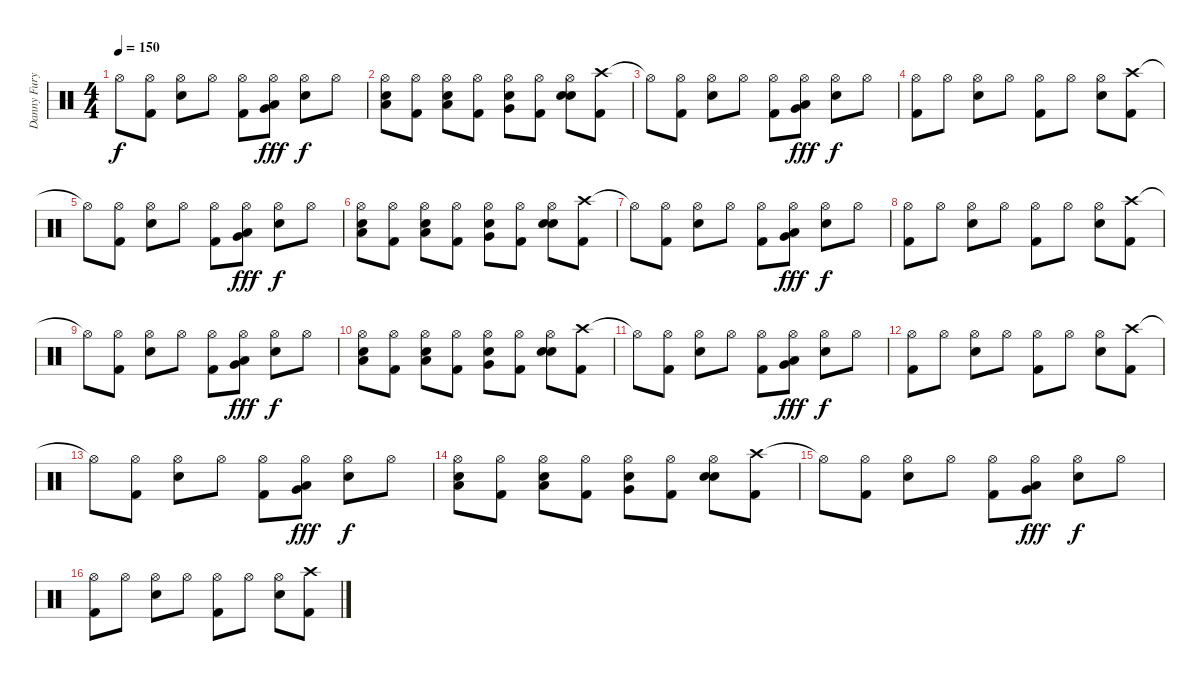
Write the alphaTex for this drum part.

\track ("Danny Fury" "Danny Fury") {instrument percussion}
\staff {score}
\articulation defaults
\ts (4 4)
\tempo 150
\clef neutral
\ks c "Hi-Hat (open)"{t}.8{dy f}
("Hi-Hat (open)" "Kick (hit) 2").8 ("Hi-Hat (open)" "Electric Snare (hit)").8 "Hi-Hat (open)".8 ("Hi-Hat (open)" "Kick (hit) 2").8 ("Hi-Hat (open)" "Low Floor Tom (hit)" "Very Low Tom (hit)").8{dy fff} ("Hi-Hat (open)" "Electric Snare (hit)").8{dy f} "Hi-Hat (open)".8 |
("Hi-Hat (open)" "Low Tom (hit)" "Electric Snare (hit)").8 ("Hi-Hat (open)" "Kick (hit) 2").8 ("Hi-Hat (open)" "Low Floor Tom (hit)" "Electric Snare (hit)").8 ("Hi-Hat (open)" "Kick (hit) 2").8 ("Hi-Hat (open)" "Very Low Tom (hit)" "Electric Snare (hit)").8 ("Hi-Hat (open)" "Kick (hit) 2").8 ("Hi-Hat (open)" "Snare (hit) 2" "Electric Snare (hit)").8 ("Crash high (hit)" "Kick (hit) 2").8 |
"Hi-Hat (open)"{t}.8 ("Hi-Hat (open)" "Kick (hit) 2").8 ("Hi-Hat (open)" "Electric Snare (hit)").8 "Hi-Hat (open)".8 ("Hi-Hat (open)" "Kick (hit) 2").8 ("Hi-Hat (open)" "Low Floor Tom (hit)" "Very Low Tom (hit)").8{dy fff} ("Hi-Hat (open)" "Electric Snare (hit)").8{dy f} "Hi-Hat (open)".8 |
("Hi-Hat (open)" "Kick (hit) 2").8 "Hi-Hat (open)".8 ("Hi-Hat (open)" "Electric Snare (hit)").8 "Hi-Hat (open)".8 ("Hi-Hat (open)" "Kick (hit) 2").8 "Hi-Hat (open)".8 ("Hi-Hat (open)" "Electric Snare (hit)").8 ("Crash high (hit)" "Kick (hit) 2").8 |
"Hi-Hat (open)"{t}.8 ("Hi-Hat (open)" "Kick (hit) 2").8 ("Hi-Hat (open)" "Electric Snare (hit)").8 "Hi-Hat (open)".8 ("Hi-Hat (open)" "Kick (hit) 2").8 ("Hi-Hat (open)" "Low Floor Tom (hit)" "Very Low Tom (hit)").8{dy fff} ("Hi-Hat (open)" "Electric Snare (hit)").8{dy f} "Hi-Hat (open)".8 |
("Hi-Hat (open)" "Low Tom (hit)" "Electric Snare (hit)").8 ("Hi-Hat (open)" "Kick (hit) 2").8 ("Hi-Hat (open)" "Low Floor Tom (hit)" "Electric Snare (hit)").8 ("Hi-Hat (open)" "Kick (hit) 2").8 ("Hi-Hat (open)" "Very Low Tom (hit)" "Electric Snare (hit)").8 ("Hi-Hat (open)" "Kick (hit) 2").8 ("Hi-Hat (open)" "Snare (hit) 2" "Electric Snare (hit)").8 ("Crash high (hit)" "Kick (hit) 2").8 |
"Hi-Hat (open)"{t}.8{volume 10} ("Hi-Hat (open)" "Kick (hit) 2").8 ("Hi-Hat (open)" "Electric Snare (hit)").8 "Hi-Hat (open)".8 ("Hi-Hat (open)" "Kick (hit) 2").8 ("Hi-Hat (open)" "Low Floor Tom (hit)" "Very Low Tom (hit)").8{dy fff} ("Hi-Hat (open)" "Electric Snare (hit)").8{dy f} "Hi-Hat (open)".8 |
("Hi-Hat (open)" "Kick (hit) 2").8 "Hi-Hat (open)".8 ("Hi-Hat (open)" "Electric Snare (hit)").8 "Hi-Hat (open)".8 ("Hi-Hat (open)" "Kick (hit) 2").8 "Hi-Hat (open)".8 ("Hi-Hat (open)" "Electric Snare (hit)").8 ("Crash high (hit)" "Kick (hit) 2").8 |
"Hi-Hat (open)"{t}.8 ("Hi-Hat (open)" "Kick (hit) 2").8 ("Hi-Hat (open)" "Electric Snare (hit)").8 "Hi-Hat (open)".8 ("Hi-Hat (open)" "Kick (hit) 2").8 ("Hi-Hat (open)" "Low Floor Tom (hit)" "Very Low Tom (hit)").8{dy fff} ("Hi-Hat (open)" "Electric Snare (hit)").8{dy f} "Hi-Hat (open)".8 |
("Hi-Hat (open)" "Low Tom (hit)" "Electric Snare (hit)").8 ("Hi-Hat (open)" "Kick (hit) 2").8 ("Hi-Hat (open)" "Low Floor Tom (hit)" "Electric Snare (hit)").8 ("Hi-Hat (open)" "Kick (hit) 2").8 ("Hi-Hat (open)" "Very Low Tom (hit)" "Electric Snare (hit)").8 ("Hi-Hat (open)" "Kick (hit) 2").8 ("Hi-Hat (open)" "Snare (hit) 2" "Electric Snare (hit)").8 ("Crash high (hit)" "Kick (hit) 2").8 |
"Hi-Hat (open)"{t}.8 ("Hi-Hat (open)" "Kick (hit) 2").8 ("Hi-Hat (open)" "Electric Snare (hit)").8 "Hi-Hat (open)".8 ("Hi-Hat (open)" "Kick (hit) 2").8 ("Hi-Hat (open)" "Low Floor Tom (hit)" "Very Low Tom (hit)").8{dy fff} ("Hi-Hat (open)" "Electric Snare (hit)").8{dy f} "Hi-Hat (open)".8 |
("Hi-Hat (open)" "Kick (hit) 2").8 "Hi-Hat (open)".8 ("Hi-Hat (open)" "Electric Snare (hit)").8 "Hi-Hat (open)".8 ("Hi-Hat (open)" "Kick (hit) 2").8 "Hi-Hat (open)".8 ("Hi-Hat (open)" "Electric Snare (hit)").8 ("Crash high (hit)" "Kick (hit) 2").8 |
"Hi-Hat (open)"{t}.8 ("Hi-Hat (open)" "Kick (hit) 2").8 ("Hi-Hat (open)" "Electric Snare (hit)").8 "Hi-Hat (open)".8 ("Hi-Hat (open)" "Kick (hit) 2").8 ("Hi-Hat (open)" "Low Floor Tom (hit)" "Very Low Tom (hit)").8{dy fff} ("Hi-Hat (open)" "Electric Snare (hit)").8{dy f} "Hi-Hat (open)".8 |
("Hi-Hat (open)" "Low Tom (hit)" "Electric Snare (hit)").8 ("Hi-Hat (open)" "Kick (hit) 2").8 ("Hi-Hat (open)" "Low Floor Tom (hit)" "Electric Snare (hit)").8 ("Hi-Hat (open)" "Kick (hit) 2").8 ("Hi-Hat (open)" "Very Low Tom (hit)" "Electric Snare (hit)").8 ("Hi-Hat (open)" "Kick (hit) 2").8 ("Hi-Hat (open)" "Snare (hit) 2" "Electric Snare (hit)").8 ("Crash high (hit)" "Kick (hit) 2").8 |
"Hi-Hat (open)"{t}.8{volume 5} ("Hi-Hat (open)" "Kick (hit) 2").8 ("Hi-Hat (open)" "Electric Snare (hit)").8 "Hi-Hat (open)".8 ("Hi-Hat (open)" "Kick (hit) 2").8 ("Hi-Hat (open)" "Low Floor Tom (hit)" "Very Low Tom (hit)").8{dy fff} ("Hi-Hat (open)" "Electric Snare (hit)").8{dy f} "Hi-Hat (open)".8 |
("Hi-Hat (open)" "Kick (hit) 2").8 "Hi-Hat (open)".8 ("Hi-Hat (open)" "Electric Snare (hit)").8 "Hi-Hat (open)".8 ("Hi-Hat (open)" "Kick (hit) 2").8 "Hi-Hat (open)".8 ("Hi-Hat (open)" "Electric Snare (hit)").8 ("Crash high (hit)" "Kick (hit) 2").8
